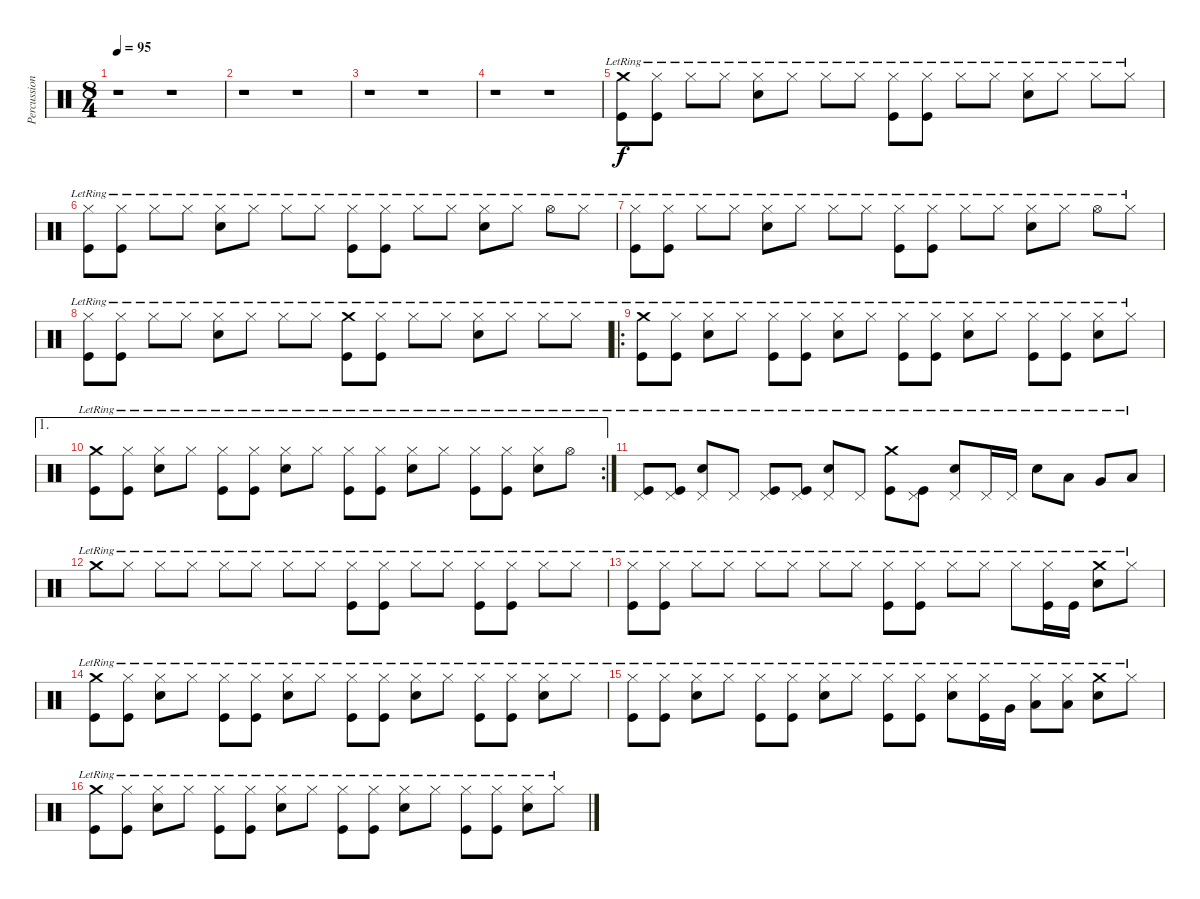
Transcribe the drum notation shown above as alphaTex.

\track ("Percussion" "Percussion") {instrument percussion}
\staff {score}
\articulation defaults
\ts (8 4)
\tempo 95
\clef neutral
\ks c
r.1{dy f} r.1 |
r.1 r.1 |
r.1 r.1 |
r.1 r.1 |
("Crash medium (hit)"{lr} "Kick (hit)"{lr}).8 ("Hi-Hat (closed)"{lr} "Kick (hit)"{lr}).8 "Hi-Hat (closed)"{lr}.8 "Hi-Hat (closed)"{lr}.8 ("Hi-Hat (closed)"{lr} "Electric Snare (hit)"{lr}).8 "Hi-Hat (closed)"{lr}.8 "Hi-Hat (closed)"{lr}.8 "Hi-Hat (closed)"{lr}.8 ("Hi-Hat (closed)"{lr} "Kick (hit)"{lr}).8 ("Hi-Hat (closed)"{lr} "Kick (hit)"{lr}).8 "Hi-Hat (closed)"{lr}.8 "Hi-Hat (closed)"{lr}.8 ("Hi-Hat (closed)"{lr} "Electric Snare (hit)"{lr}).8 "Hi-Hat (closed)"{lr}.8 "Hi-Hat (closed)"{lr}.8 "Hi-Hat (closed)"{lr}.8 |
("Hi-Hat (closed)"{lr} "Kick (hit)"{lr}).8 ("Hi-Hat (closed)"{lr} "Kick (hit)"{lr}).8 "Hi-Hat (closed)"{lr}.8 "Hi-Hat (closed)"{lr}.8 ("Hi-Hat (closed)"{lr} "Electric Snare (hit)"{lr}).8 "Hi-Hat (closed)"{lr}.8 "Hi-Hat (closed)"{lr}.8 "Hi-Hat (closed)"{lr}.8 ("Hi-Hat (closed)"{lr} "Kick (hit)"{lr}).8 ("Hi-Hat (closed)"{lr} "Kick (hit)"{lr}).8 "Hi-Hat (closed)"{lr}.8 "Hi-Hat (closed)"{lr}.8 ("Hi-Hat (closed)"{lr} "Electric Snare (hit)"{lr}).8 "Hi-Hat (closed)"{lr}.8 "Hi-Hat (open)"{lr}.8 "Hi-Hat (closed)"{lr}.8 |
("Hi-Hat (closed)"{lr} "Kick (hit)"{lr}).8 ("Hi-Hat (closed)"{lr} "Kick (hit)"{lr}).8 "Hi-Hat (closed)"{lr}.8 "Hi-Hat (closed)"{lr}.8 ("Hi-Hat (closed)"{lr} "Electric Snare (hit)"{lr}).8 "Hi-Hat (closed)"{lr}.8 "Hi-Hat (closed)"{lr}.8 "Hi-Hat (closed)"{lr}.8 ("Hi-Hat (closed)"{lr} "Kick (hit)"{lr}).8 ("Hi-Hat (closed)"{lr} "Kick (hit)"{lr}).8 "Hi-Hat (closed)"{lr}.8 "Hi-Hat (closed)"{lr}.8 ("Hi-Hat (closed)"{lr} "Electric Snare (hit)"{lr}).8 "Hi-Hat (closed)"{lr}.8 "Hi-Hat (open)"{lr}.8 "Hi-Hat (closed)"{lr}.8 |
("Hi-Hat (closed)"{lr} "Kick (hit)"{lr}).8 ("Hi-Hat (closed)"{lr} "Kick (hit)"{lr}).8 "Hi-Hat (closed)"{lr}.8 "Hi-Hat (closed)"{lr}.8 ("Hi-Hat (closed)"{lr} "Electric Snare (hit)"{lr}).8 "Hi-Hat (closed)"{lr}.8 "Hi-Hat (closed)"{lr}.8 "Hi-Hat (closed)"{lr}.8 ("Crash medium (hit)"{lr} "Kick (hit)"{lr}).8 ("Hi-Hat (closed)"{lr} "Kick (hit)"{lr}).8 "Hi-Hat (closed)"{lr}.8 "Hi-Hat (closed)"{lr}.8 ("Hi-Hat (closed)"{lr} "Electric Snare (hit)"{lr}).8 "Hi-Hat (closed)"{lr}.8 "Hi-Hat (closed)"{lr}.8 "Hi-Hat (closed)"{lr}.8 |
\ro
("Crash medium (hit)"{lr} "Kick (hit)"{lr}).8{volume 16} ("Hi-Hat (closed)"{lr} "Kick (hit)").8 ("Hi-Hat (closed)"{lr} "Electric Snare (hit)"{lr}).8 "Hi-Hat (closed)"{lr}.8 ("Hi-Hat (closed)"{lr} "Kick (hit)"{lr}).8 ("Hi-Hat (closed)"{lr} "Kick (hit)").8 ("Hi-Hat (closed)"{lr} "Electric Snare (hit)"{lr}).8 "Hi-Hat (closed)"{lr}.8 ("Hi-Hat (closed)"{lr} "Kick (hit)"{lr}).8 ("Hi-Hat (closed)"{lr} "Kick (hit)").8 ("Hi-Hat (closed)"{lr} "Electric Snare (hit)"{lr}).8 "Hi-Hat (closed)"{lr}.8 ("Hi-Hat (closed)"{lr} "Kick (hit)"{lr}).8 ("Hi-Hat (closed)"{lr} "Kick (hit)").8 ("Hi-Hat (closed)"{lr} "Electric Snare (hit)"{lr}).8 "Hi-Hat (closed)"{lr}.8 |
\ae 1
\rc 2
("Crash medium (hit)"{lr} "Kick (hit)"{lr}).8{volume 16} ("Hi-Hat (closed)"{lr} "Kick (hit)").8 ("Hi-Hat (closed)"{lr} "Electric Snare (hit)"{lr}).8 "Hi-Hat (closed)"{lr}.8 ("Hi-Hat (closed)"{lr} "Kick (hit)"{lr}).8 ("Hi-Hat (closed)"{lr} "Kick (hit)").8 ("Hi-Hat (closed)"{lr} "Electric Snare (hit)"{lr}).8 "Hi-Hat (closed)"{lr}.8 ("Hi-Hat (closed)"{lr} "Kick (hit)"{lr}).8 ("Hi-Hat (closed)"{lr} "Kick (hit)").8 ("Hi-Hat (closed)"{lr} "Electric Snare (hit)"{lr}).8 "Hi-Hat (closed)"{lr}.8 ("Hi-Hat (closed)"{lr} "Kick (hit)"{lr}).8 ("Hi-Hat (closed)"{lr} "Kick (hit)").8 ("Hi-Hat (closed)"{lr} "Electric Snare (hit)"{lr}).8 "Hi-Hat (open)"{lr}.8 |
("Pedal Hi-Hat (hit)"{lr} "Kick (hit)"{lr}).8 ("Pedal Hi-Hat (hit)"{lr} "Kick (hit)").8 ("Pedal Hi-Hat (hit)"{lr} "Electric Snare (hit)"{lr}).8 "Pedal Hi-Hat (hit)"{lr}.8 ("Pedal Hi-Hat (hit)"{lr} "Kick (hit)"{lr}).8 ("Pedal Hi-Hat (hit)"{lr} "Kick (hit)").8 ("Pedal Hi-Hat (hit)"{lr} "Electric Snare (hit)"{lr}).8 "Pedal Hi-Hat (hit)"{lr}.8 ("Crash medium (hit)"{lr} "Kick (hit)"{lr}).8 ("Pedal Hi-Hat (hit)"{lr} "Kick (hit)").8 ("Pedal Hi-Hat (hit)"{lr} "Electric Snare (hit)"{lr}).8 "Pedal Hi-Hat (hit)"{lr}.16 "Pedal Hi-Hat (hit)"{lr}.16 "Electric Snare (hit)"{lr}.8 "Low Tom (hit)"{lr}.8 "Very Low Tom (hit)"{lr}.8 "Low Floor Tom (hit)"{lr}.8 |
"Crash medium (hit)"{lr}.8 "Hi-Hat (closed)"{lr}.8 "Hi-Hat (closed)"{lr}.8 "Hi-Hat (closed)"{lr}.8 "Hi-Hat (closed)"{lr}.8 "Hi-Hat (closed)"{lr}.8 "Hi-Hat (closed)"{lr}.8 "Hi-Hat (closed)"{lr}.8 ("Hi-Hat (closed)"{lr} "Kick (hit)").8 ("Hi-Hat (closed)"{lr} "Kick (hit)").8 "Hi-Hat (closed)"{lr}.8 "Hi-Hat (closed)"{lr}.8 ("Hi-Hat (closed)"{lr} "Kick (hit)").8 ("Hi-Hat (closed)"{lr} "Kick (hit)").8 "Hi-Hat (closed)"{lr}.8 "Hi-Hat (closed)"{lr}.8 |
("Hi-Hat (closed)"{lr} "Kick (hit)").8 ("Hi-Hat (closed)"{lr} "Kick (hit)").8 "Hi-Hat (closed)"{lr}.8 "Hi-Hat (closed)"{lr}.8 "Hi-Hat (closed)"{lr}.8 "Hi-Hat (closed)"{lr}.8 "Hi-Hat (closed)"{lr}.8 "Hi-Hat (closed)"{lr}.8 ("Hi-Hat (closed)"{lr} "Kick (hit)").8 ("Hi-Hat (closed)"{lr} "Kick (hit)").8 "Hi-Hat (closed)"{lr}.8 "Hi-Hat (closed)"{lr}.8 "Hi-Hat (closed)"{lr}.8 ("Hi-Hat (closed)"{lr} "Kick (hit)"{lr}).16 "Kick (hit)"{lr}.16 ("Crash medium (hit)"{lr} "Electric Snare (hit)"{lr}).8 "Hi-Hat (closed)"{lr}.8 |
("Crash medium (hit)"{lr} "Kick (hit)"{lr}).8 ("Hi-Hat (closed)"{lr} "Kick (hit)").8 ("Hi-Hat (closed)"{lr} "Electric Snare (hit)"{lr}).8 "Hi-Hat (closed)"{lr}.8 ("Hi-Hat (closed)"{lr} "Kick (hit)"{lr}).8 ("Hi-Hat (closed)"{lr} "Kick (hit)").8 ("Hi-Hat (closed)"{lr} "Electric Snare (hit)"{lr}).8 "Hi-Hat (closed)"{lr}.8 ("Hi-Hat (closed)"{lr} "Kick (hit)"{lr}).8 ("Hi-Hat (closed)"{lr} "Kick (hit)").8 ("Hi-Hat (closed)"{lr} "Electric Snare (hit)"{lr}).8 "Hi-Hat (closed)"{lr}.8 ("Hi-Hat (closed)"{lr} "Kick (hit)"{lr}).8 ("Hi-Hat (closed)"{lr} "Kick (hit)").8 ("Hi-Hat (closed)"{lr} "Electric Snare (hit)"{lr}).8 "Hi-Hat (closed)"{lr}.8 |
("Hi-Hat (closed)"{lr} "Kick (hit)"{lr}).8 ("Hi-Hat (closed)"{lr} "Kick (hit)").8 ("Hi-Hat (closed)"{lr} "Electric Snare (hit)"{lr}).8 "Hi-Hat (closed)"{lr}.8 ("Hi-Hat (closed)"{lr} "Kick (hit)"{lr}).8 ("Hi-Hat (closed)"{lr} "Kick (hit)").8 ("Hi-Hat (closed)"{lr} "Electric Snare (hit)"{lr}).8 "Hi-Hat (closed)"{lr}.8 ("Hi-Hat (closed)"{lr} "Kick (hit)"{lr}).8 ("Hi-Hat (closed)"{lr} "Kick (hit)").8 ("Hi-Hat (closed)"{lr} "Electric Snare (hit)"{lr}).8 ("Hi-Hat (closed)"{lr} "Kick (hit)"{lr}).16 "Very Low Tom (hit)"{lr}.16 ("Hi-Hat (closed)"{lr} "Low Tom (hit)"{lr}).8 ("Hi-Hat (closed)"{lr} "Low Tom (hit)"{lr}).8 ("Crash medium (hit)"{lr} "Electric Snare (hit)"{lr}).8 "Hi-Hat (closed)"{lr}.8 |
("Crash medium (hit)"{lr} "Kick (hit)"{lr}).8 ("Hi-Hat (closed)"{lr} "Kick (hit)").8 ("Hi-Hat (closed)"{lr} "Electric Snare (hit)"{lr}).8 "Hi-Hat (closed)"{lr}.8 ("Hi-Hat (closed)"{lr} "Kick (hit)"{lr}).8 ("Hi-Hat (closed)"{lr} "Kick (hit)").8 ("Hi-Hat (closed)"{lr} "Electric Snare (hit)"{lr}).8 "Hi-Hat (closed)"{lr}.8 ("Hi-Hat (closed)"{lr} "Kick (hit)"{lr}).8 ("Hi-Hat (closed)"{lr} "Kick (hit)").8 ("Hi-Hat (closed)"{lr} "Electric Snare (hit)"{lr}).8 "Hi-Hat (closed)"{lr}.8 ("Hi-Hat (closed)"{lr} "Kick (hit)"{lr}).8 ("Hi-Hat (closed)"{lr} "Kick (hit)").8 ("Hi-Hat (closed)"{lr} "Electric Snare (hit)"{lr}).8 "Hi-Hat (closed)"{lr}.8
